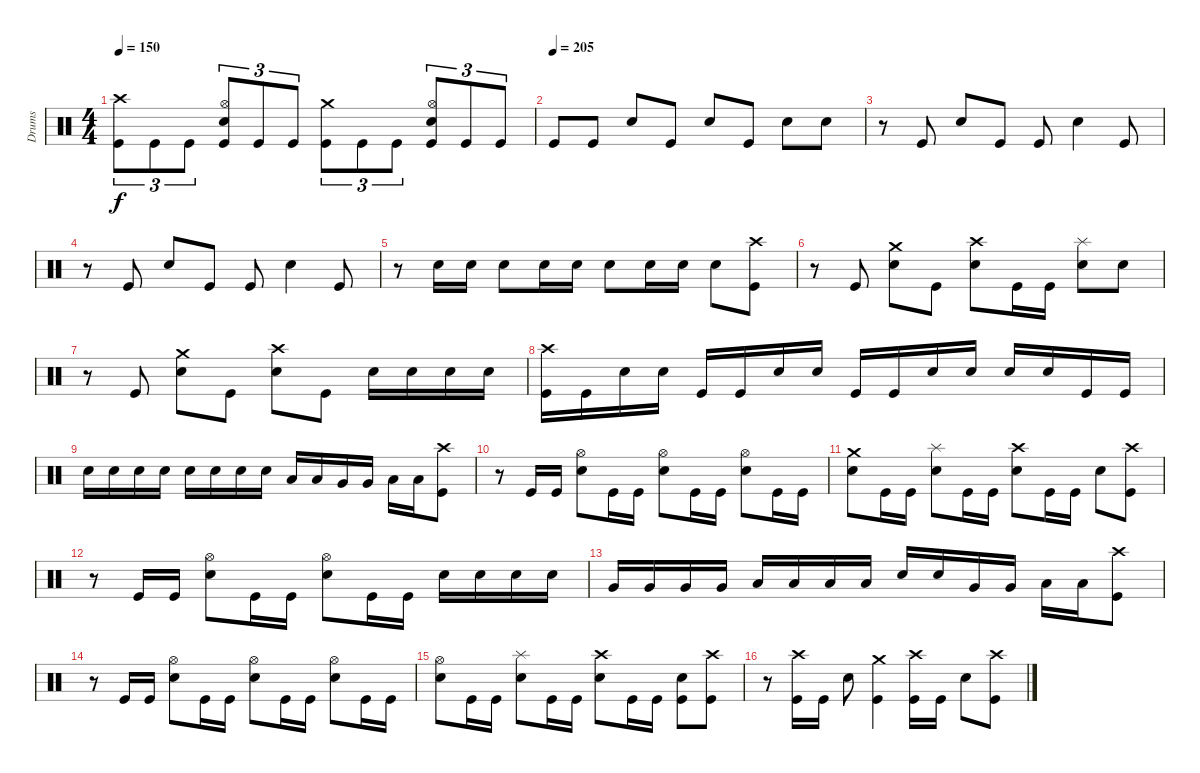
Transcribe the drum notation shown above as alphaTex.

\track ("Drums" "Drums") {instrument percussion}
\staff {score}
\articulation defaults
\ts (4 4)
\tempo 150
\clef neutral
\ks c
("Crash high (hit)" "Kick (hit)").8{tu (3 2) dy f} "Kick (hit)".8{tu (3 2)} "Kick (hit)".8{tu (3 2)} ("Hi-Hat (open)" "Electric Snare (hit)" "Kick (hit)").8{tu (3 2)} "Kick (hit)".8{tu (3 2)} "Kick (hit)".8{tu (3 2)} ("Crash medium (hit)" "Kick (hit)").8{tu (3 2)} "Kick (hit)".8{tu (3 2)} "Kick (hit)".8{tu (3 2)} ("Hi-Hat (open)" "Electric Snare (hit)" "Kick (hit)").8{tu (3 2)} "Kick (hit)".8{tu (3 2)} "Kick (hit)".8{tu (3 2)} |
\tempo (205)
"Kick (hit)".8 "Kick (hit)".8 "Electric Snare (hit)".8 "Kick (hit)".8 "Electric Snare (hit)".8 "Kick (hit)".8 "Electric Snare (hit)".8 "Electric Snare (hit)".8 |
r.8 "Kick (hit)".8 "Electric Snare (hit)".8 "Kick (hit)".8 "Kick (hit)".8 "Electric Snare (hit)".4 "Kick (hit)".8 |
r.8 "Kick (hit)".8 "Electric Snare (hit)".8 "Kick (hit)".8 "Kick (hit)".8 "Electric Snare (hit)".4 "Kick (hit)".8 |
r.8 "Electric Snare (hit)".16 "Electric Snare (hit)".16 "Electric Snare (hit)".8 "Electric Snare (hit)".16 "Electric Snare (hit)".16 "Electric Snare (hit)".8 "Electric Snare (hit)".16 "Electric Snare (hit)".16 "Electric Snare (hit)".8 ("Crash high (hit)" "Kick (hit)").8 |
r.8 "Kick (hit)".8 ("Crash medium (hit)" "Electric Snare (hit)").8 "Kick (hit)".8 ("Crash high (hit)" "Electric Snare (hit)").8 "Kick (hit)".16 "Kick (hit)".16 ("Splash (hit)" "Electric Snare (hit)").8 "Electric Snare (hit)".8 |
r.8 "Kick (hit)".8 ("Crash medium (hit)" "Electric Snare (hit)").8 "Kick (hit)".8 ("Crash high (hit)" "Electric Snare (hit)").8 "Kick (hit)".8 "Electric Snare (hit)".16 "Electric Snare (hit)".16 "Electric Snare (hit)".16 "Electric Snare (hit)".16 |
("Crash high (hit)" "Kick (hit)").16 "Kick (hit)".16 "Electric Snare (hit)".16 "Electric Snare (hit)".16 "Kick (hit)".16 "Kick (hit)".16 "Electric Snare (hit)".16 "Electric Snare (hit)".16 "Kick (hit)".16 "Kick (hit)".16 "Electric Snare (hit)".16 "Electric Snare (hit)".16 "Electric Snare (hit)".16 "Electric Snare (hit)".16 "Kick (hit)".16 "Kick (hit)".16 |
"Electric Snare (hit)".16 "Electric Snare (hit)".16 "Electric Snare (hit)".16 "Electric Snare (hit)".16 "Electric Snare (hit)".16 "Electric Snare (hit)".16 "Electric Snare (hit)".16 "Electric Snare (hit)".16 "Low Tom (hit)".16 "Low Tom (hit)".16 "Very Low Tom (hit)".16 "Very Low Tom (hit)".16 "Low Floor Tom (hit)".16 "Low Floor Tom (hit)".16 ("Crash high (hit)" "Kick (hit)").8 |
r.8 "Kick (hit)".16 "Kick (hit)".16 ("Hi-Hat (open)" "Electric Snare (hit)").8 "Kick (hit)".16 "Kick (hit)".16 ("Hi-Hat (open)" "Electric Snare (hit)").8 "Kick (hit)".16 "Kick (hit)".16 ("Hi-Hat (open)" "Electric Snare (hit)").8 "Kick (hit)".16 "Kick (hit)".16 |
("Crash medium (hit)" "Electric Snare (hit)").8 "Kick (hit)".16 "Kick (hit)".16 ("Splash (hit)" "Electric Snare (hit)").8 "Kick (hit)".16 "Kick (hit)".16 ("Crash high (hit)" "Electric Snare (hit)").8 "Kick (hit)".16 "Kick (hit)".16 "Electric Snare (hit)".8 ("Crash high (hit)" "Kick (hit)").8 |
r.8 "Kick (hit)".16 "Kick (hit)".16 ("Hi-Hat (open)" "Electric Snare (hit)").8 "Kick (hit)".16 "Kick (hit)".16 ("Hi-Hat (open)" "Electric Snare (hit)").8 "Kick (hit)".16 "Kick (hit)".16 "Electric Snare (hit)".16 "Electric Snare (hit)".16 "Electric Snare (hit)".16 "Electric Snare (hit)".16 |
"Very Low Tom (hit)".16 "Very Low Tom (hit)".16 "Very Low Tom (hit)".16 "Very Low Tom (hit)".16 "Low Floor Tom (hit)".16 "Low Floor Tom (hit)".16 "Low Floor Tom (hit)".16 "Low Floor Tom (hit)".16 "Electric Snare (hit)".16 "Electric Snare (hit)".16 "Very Low Tom (hit)".16 "Very Low Tom (hit)".16 "Low Floor Tom (hit)".16 "Low Floor Tom (hit)".16 ("Crash high (hit)" "Kick (hit)").8 |
r.8 "Kick (hit)".16 "Kick (hit)".16 ("Hi-Hat (open)" "Electric Snare (hit)").8 "Kick (hit)".16 "Kick (hit)".16 ("Hi-Hat (open)" "Electric Snare (hit)").8 "Kick (hit)".16 "Kick (hit)".16 ("Hi-Hat (open)" "Electric Snare (hit)").8 "Kick (hit)".16 "Kick (hit)".16 |
("Hi-Hat (open)" "Electric Snare (hit)").8 "Kick (hit)".16 "Kick (hit)".16 ("Splash (hit)" "Electric Snare (hit)").8 "Kick (hit)".16 "Kick (hit)".16 ("Crash high (hit)" "Electric Snare (hit)").8 "Kick (hit)".16 "Kick (hit)".16 ("Electric Snare (hit)" "Kick (hit)").8 ("Crash high (hit)" "Kick (hit)").8 |
r.8 ("Crash high (hit)" "Kick (hit)").16 "Kick (hit)".16 "Electric Snare (hit)".8 ("Crash medium (hit)" "Kick (hit)").4 ("Crash high (hit)" "Kick (hit)").16 "Kick (hit)".16 "Electric Snare (hit)".8 ("Crash high (hit)" "Kick (hit)").8
